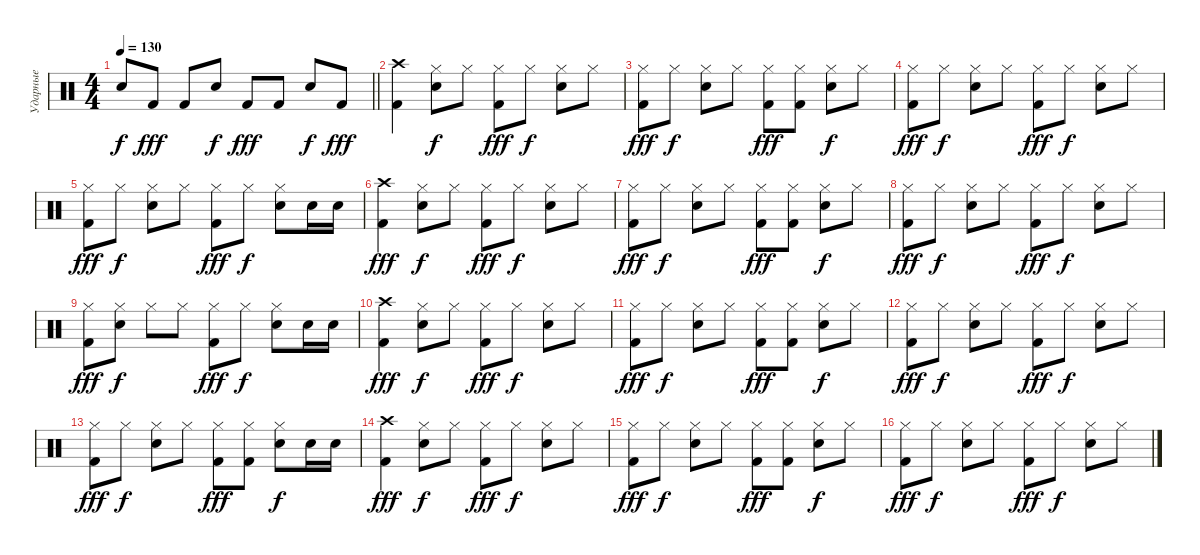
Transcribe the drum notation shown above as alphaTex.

\track ("Ударные" "Ударные") {instrument percussion}
\staff {score}
\articulation defaults
\ts (4 4)
\tempo 130
\clef neutral
\barLineRight lightlight
\ks c "Snare (hit) 2".8{dy f} "Kick (hit) 2".8{dy fff} "Kick (hit) 2".8 "Snare (hit) 2".8{dy f} "Kick (hit) 2".8{dy fff} "Kick (hit) 2".8 "Snare (hit) 2".8{dy f} "Kick (hit) 2".8{dy fff}
|
("Kick (hit) 2" "Crash high (hit)").4 ("Snare (hit) 2" "Hi-Hat (closed)").8{dy f} "Hi-Hat (closed)".8 ("Kick (hit) 2" "Hi-Hat (closed)").8{dy fff} "Hi-Hat (closed)".8{dy f} ("Snare (hit) 2" "Hi-Hat (closed)").8 "Hi-Hat (closed)".8 |
("Kick (hit) 2" "Hi-Hat (closed)").8{dy fff} "Hi-Hat (closed)".8{dy f} ("Snare (hit) 2" "Hi-Hat (closed)").8 "Hi-Hat (closed)".8 ("Kick (hit) 2" "Hi-Hat (closed)").8{dy fff} ("Kick (hit) 2" "Hi-Hat (closed)").8 ("Snare (hit) 2" "Hi-Hat (closed)").8{dy f} "Hi-Hat (closed)".8 |
("Kick (hit) 2" "Hi-Hat (closed)").8{dy fff} "Hi-Hat (closed)".8{dy f} ("Snare (hit) 2" "Hi-Hat (closed)").8 "Hi-Hat (closed)".8 ("Kick (hit) 2" "Hi-Hat (closed)").8{dy fff} "Hi-Hat (closed)".8{dy f} ("Snare (hit) 2" "Hi-Hat (closed)").8 "Hi-Hat (closed)".8 |
("Kick (hit) 2" "Hi-Hat (closed)").8{dy fff} "Hi-Hat (closed)".8{dy f} ("Snare (hit) 2" "Hi-Hat (closed)").8 "Hi-Hat (closed)".8 ("Kick (hit) 2" "Hi-Hat (closed)").8{dy fff} "Hi-Hat (closed)".8{dy f} ("Snare (hit) 2" "Hi-Hat (closed)").8 "Snare (hit) 2".16 "Snare (hit) 2".16 |
("Kick (hit) 2" "Crash high (hit)").4{dy fff} ("Snare (hit) 2" "Hi-Hat (closed)").8{dy f} "Hi-Hat (closed)".8 ("Kick (hit) 2" "Hi-Hat (closed)").8{dy fff} "Hi-Hat (closed)".8{dy f} ("Snare (hit) 2" "Hi-Hat (closed)").8 "Hi-Hat (closed)".8 |
("Kick (hit) 2" "Hi-Hat (closed)").8{dy fff} "Hi-Hat (closed)".8{dy f} ("Snare (hit) 2" "Hi-Hat (closed)").8 "Hi-Hat (closed)".8 ("Kick (hit) 2" "Hi-Hat (closed)").8{dy fff} ("Kick (hit) 2" "Hi-Hat (closed)").8 ("Snare (hit) 2" "Hi-Hat (closed)").8{dy f} "Hi-Hat (closed)".8 |
("Kick (hit) 2" "Hi-Hat (closed)").8{dy fff} "Hi-Hat (closed)".8{dy f} ("Snare (hit) 2" "Hi-Hat (closed)").8 "Hi-Hat (closed)".8 ("Kick (hit) 2" "Hi-Hat (closed)").8{dy fff} "Hi-Hat (closed)".8{dy f} ("Snare (hit) 2" "Hi-Hat (closed)").8 "Hi-Hat (closed)".8 |
("Kick (hit) 2" "Hi-Hat (closed)").8{dy fff} ("Snare (hit) 2" "Hi-Hat (closed)").8{dy f} "Hi-Hat (closed)".8 "Hi-Hat (closed)".8 ("Kick (hit) 2" "Hi-Hat (closed)").8{dy fff} "Hi-Hat (closed)".8{dy f} ("Snare (hit) 2" "Hi-Hat (closed)").8 "Snare (hit) 2".16 "Snare (hit) 2".16 |
("Kick (hit) 2" "Crash high (hit)").4{dy fff} ("Snare (hit) 2" "Hi-Hat (closed)").8{dy f} "Hi-Hat (closed)".8 ("Kick (hit) 2" "Hi-Hat (closed)").8{dy fff} "Hi-Hat (closed)".8{dy f} ("Snare (hit) 2" "Hi-Hat (closed)").8 "Hi-Hat (closed)".8 |
("Kick (hit) 2" "Hi-Hat (closed)").8{dy fff} "Hi-Hat (closed)".8{dy f} ("Snare (hit) 2" "Hi-Hat (closed)").8 "Hi-Hat (closed)".8 ("Kick (hit) 2" "Hi-Hat (closed)").8{dy fff} ("Kick (hit) 2" "Hi-Hat (closed)").8 ("Snare (hit) 2" "Hi-Hat (closed)").8{dy f} "Hi-Hat (closed)".8 |
("Kick (hit) 2" "Hi-Hat (closed)").8{dy fff} "Hi-Hat (closed)".8{dy f} ("Snare (hit) 2" "Hi-Hat (closed)").8 "Hi-Hat (closed)".8 ("Kick (hit) 2" "Hi-Hat (closed)").8{dy fff} "Hi-Hat (closed)".8{dy f} ("Snare (hit) 2" "Hi-Hat (closed)").8 "Hi-Hat (closed)".8 |
("Kick (hit) 2" "Hi-Hat (closed)").8{dy fff} "Hi-Hat (closed)".8{dy f} ("Snare (hit) 2" "Hi-Hat (closed)").8 "Hi-Hat (closed)".8 ("Kick (hit) 2" "Hi-Hat (closed)").8{dy fff} ("Kick (hit) 2" "Hi-Hat (closed)").8 ("Snare (hit) 2" "Hi-Hat (closed)").8{dy f} "Snare (hit) 2".16 "Snare (hit) 2".16 |
("Kick (hit) 2" "Crash high (hit)").4{dy fff} ("Snare (hit) 2" "Hi-Hat (closed)").8{dy f} "Hi-Hat (closed)".8 ("Kick (hit) 2" "Hi-Hat (closed)").8{dy fff} "Hi-Hat (closed)".8{dy f} ("Snare (hit) 2" "Hi-Hat (closed)").8 "Hi-Hat (closed)".8 |
("Kick (hit) 2" "Hi-Hat (closed)").8{dy fff} "Hi-Hat (closed)".8{dy f} ("Snare (hit) 2" "Hi-Hat (closed)").8 "Hi-Hat (closed)".8 ("Kick (hit) 2" "Hi-Hat (closed)").8{dy fff} ("Kick (hit) 2" "Hi-Hat (closed)").8 ("Snare (hit) 2" "Hi-Hat (closed)").8{dy f} "Hi-Hat (closed)".8 |
("Kick (hit) 2" "Hi-Hat (closed)").8{dy fff} "Hi-Hat (closed)".8{dy f} ("Snare (hit) 2" "Hi-Hat (closed)").8 "Hi-Hat (closed)".8 ("Kick (hit) 2" "Hi-Hat (closed)").8{dy fff} "Hi-Hat (closed)".8{dy f} ("Snare (hit) 2" "Hi-Hat (closed)").8 "Hi-Hat (closed)".8
